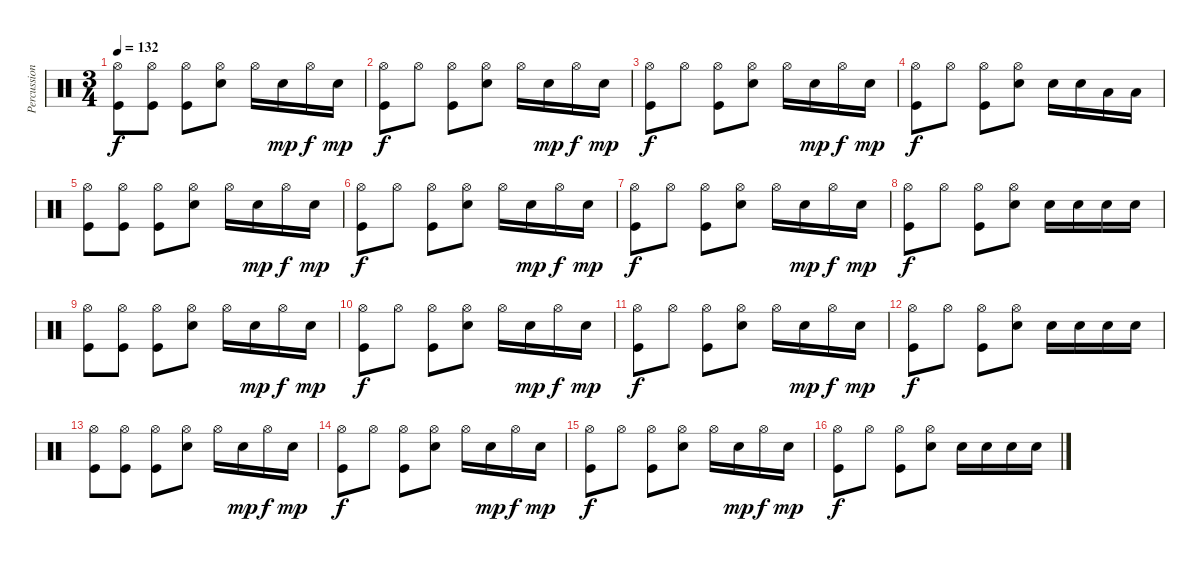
\track ("Percussion" "Percussion") {instrument percussion}
\staff {score}
\articulation defaults
\ts (3 4)
\tempo 132
\clef neutral
\ks c
("Hi-Hat (open)" "Kick (hit)").8{dy f} ("Hi-Hat (open)" "Kick (hit)").8 ("Hi-Hat (open)" "Kick (hit)").8 ("Hi-Hat (open)" "Snare (hit) 2").8 "Hi-Hat (open)".16 "Snare (hit) 2".16{dy mp} "Hi-Hat (open)".16{dy f} "Snare (hit) 2".16{dy mp} |
("Hi-Hat (open)" "Kick (hit)").8{dy f} "Hi-Hat (open)".8 ("Hi-Hat (open)" "Kick (hit)").8 ("Hi-Hat (open)" "Snare (hit) 2").8 "Hi-Hat (open)".16 "Snare (hit) 2".16{dy mp} "Hi-Hat (open)".16{dy f} "Snare (hit) 2".16{dy mp} |
("Hi-Hat (open)" "Kick (hit)").8{dy f} "Hi-Hat (open)".8 ("Hi-Hat (open)" "Kick (hit)").8 ("Hi-Hat (open)" "Snare (hit) 2").8 "Hi-Hat (open)".16 "Snare (hit) 2".16{dy mp} "Hi-Hat (open)".16{dy f} "Snare (hit) 2".16{dy mp} |
("Hi-Hat (open)" "Kick (hit)").8{dy f} "Hi-Hat (open)".8 ("Hi-Hat (open)" "Kick (hit)").8 ("Hi-Hat (open)" "Snare (hit) 2").8 "Snare (hit) 2".16 "Snare (hit) 2".16 "Low Tom (hit)".16 "Low Tom (hit)".16 |
("Hi-Hat (open)" "Kick (hit)").8 ("Hi-Hat (open)" "Kick (hit)").8 ("Hi-Hat (open)" "Kick (hit)").8 ("Hi-Hat (open)" "Snare (hit) 2").8 "Hi-Hat (open)".16 "Snare (hit) 2".16{dy mp} "Hi-Hat (open)".16{dy f} "Snare (hit) 2".16{dy mp} |
("Hi-Hat (open)" "Kick (hit)").8{dy f} "Hi-Hat (open)".8 ("Hi-Hat (open)" "Kick (hit)").8 ("Hi-Hat (open)" "Snare (hit) 2").8 "Hi-Hat (open)".16 "Snare (hit) 2".16{dy mp} "Hi-Hat (open)".16{dy f} "Snare (hit) 2".16{dy mp} |
("Hi-Hat (open)" "Kick (hit)").8{dy f} "Hi-Hat (open)".8 ("Hi-Hat (open)" "Kick (hit)").8 ("Hi-Hat (open)" "Snare (hit) 2").8 "Hi-Hat (open)".16 "Snare (hit) 2".16{dy mp} "Hi-Hat (open)".16{dy f} "Snare (hit) 2".16{dy mp} |
("Hi-Hat (open)" "Kick (hit)").8{dy f} "Hi-Hat (open)".8 ("Hi-Hat (open)" "Kick (hit)").8 ("Hi-Hat (open)" "Snare (hit) 2").8 "Snare (hit) 2".16 "Snare (hit) 2".16 "Snare (hit) 2".16 "Snare (hit) 2".16 |
("Hi-Hat (open)" "Kick (hit)").8 ("Hi-Hat (open)" "Kick (hit)").8 ("Hi-Hat (open)" "Kick (hit)").8 ("Hi-Hat (open)" "Snare (hit) 2").8 "Hi-Hat (open)".16 "Snare (hit) 2".16{dy mp} "Hi-Hat (open)".16{dy f} "Snare (hit) 2".16{dy mp} |
("Hi-Hat (open)" "Kick (hit)").8{dy f} "Hi-Hat (open)".8 ("Hi-Hat (open)" "Kick (hit)").8 ("Hi-Hat (open)" "Snare (hit) 2").8 "Hi-Hat (open)".16 "Snare (hit) 2".16{dy mp} "Hi-Hat (open)".16{dy f} "Snare (hit) 2".16{dy mp} |
("Hi-Hat (open)" "Kick (hit)").8{dy f} "Hi-Hat (open)".8 ("Hi-Hat (open)" "Kick (hit)").8 ("Hi-Hat (open)" "Snare (hit) 2").8 "Hi-Hat (open)".16 "Snare (hit) 2".16{dy mp} "Hi-Hat (open)".16{dy f} "Snare (hit) 2".16{dy mp} |
("Hi-Hat (open)" "Kick (hit)").8{dy f} "Hi-Hat (open)".8 ("Hi-Hat (open)" "Kick (hit)").8 ("Hi-Hat (open)" "Snare (hit) 2").8 "Snare (hit) 2".16 "Snare (hit) 2".16 "Snare (hit) 2".16 "Snare (hit) 2".16 |
("Hi-Hat (open)" "Kick (hit)").8 ("Hi-Hat (open)" "Kick (hit)").8 ("Hi-Hat (open)" "Kick (hit)").8 ("Hi-Hat (open)" "Snare (hit) 2").8 "Hi-Hat (open)".16 "Snare (hit) 2".16{dy mp} "Hi-Hat (open)".16{dy f} "Snare (hit) 2".16{dy mp} |
("Hi-Hat (open)" "Kick (hit)").8{dy f} "Hi-Hat (open)".8 ("Hi-Hat (open)" "Kick (hit)").8 ("Hi-Hat (open)" "Snare (hit) 2").8 "Hi-Hat (open)".16 "Snare (hit) 2".16{dy mp} "Hi-Hat (open)".16{dy f} "Snare (hit) 2".16{dy mp} |
("Hi-Hat (open)" "Kick (hit)").8{dy f} "Hi-Hat (open)".8 ("Hi-Hat (open)" "Kick (hit)").8 ("Hi-Hat (open)" "Snare (hit) 2").8 "Hi-Hat (open)".16 "Snare (hit) 2".16{dy mp} "Hi-Hat (open)".16{dy f} "Snare (hit) 2".16{dy mp} |
("Hi-Hat (open)" "Kick (hit)").8{dy f} "Hi-Hat (open)".8 ("Hi-Hat (open)" "Kick (hit)").8 ("Hi-Hat (open)" "Snare (hit) 2").8 "Snare (hit) 2".16 "Snare (hit) 2".16 "Snare (hit) 2".16 "Snare (hit) 2".16
